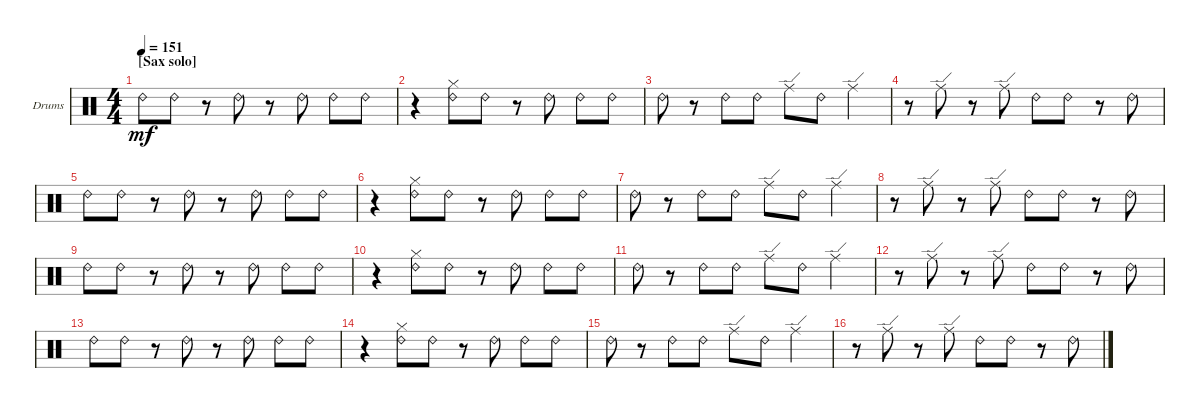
\bracketExtendMode groupsimilarinstruments
\firstSystemTrackNameOrientation horizontal
\otherSystemsTrackNameOrientation horizontal
\track ("Drumkit" "Drums") {instrument percussion}
\staff {score}
\articulation defaults
\ts (4 4)
\section ("" "[Sax solo]")
\tempo 151
\clef neutral
\ks aminor "Ride (bell) 2".8{dy mf} "Ride (bell) 2".8
r.8 "Ride (bell) 2".8 r.8 "Ride (bell) 2".8 "Ride (bell) 2".8 "Ride (bell) 2".8 |
r.4 ("Ride (bell) 2" "Hi-Hat (closed)").8 "Ride (bell) 2".8 r.8 "Ride (bell) 2".8 "Ride (bell) 2".8 "Ride (bell) 2".8 |
"Ride (bell) 2".8 r.8 "Ride (bell) 2".8 "Ride (bell) 2".8 "Ride (edge)".8 "Ride (bell) 2".8 "Ride (edge)".4 |
r.8 "Ride (edge)".8 r.8 "Ride (edge)".8 "Ride (bell) 2".8 "Ride (bell) 2".8 r.8 "Ride (bell) 2".8 |
"Ride (bell) 2".8 "Ride (bell) 2".8 r.8 "Ride (bell) 2".8 r.8 "Ride (bell) 2".8 "Ride (bell) 2".8 "Ride (bell) 2".8 |
r.4 ("Ride (bell) 2" "Hi-Hat (closed)").8 "Ride (bell) 2".8 r.8 "Ride (bell) 2".8 "Ride (bell) 2".8 "Ride (bell) 2".8 |
"Ride (bell) 2".8 r.8 "Ride (bell) 2".8 "Ride (bell) 2".8 "Ride (edge)".8 "Ride (bell) 2".8 "Ride (edge)".4 |
r.8 "Ride (edge)".8 r.8 "Ride (edge)".8 "Ride (bell) 2".8 "Ride (bell) 2".8 r.8 "Ride (bell) 2".8 |
"Ride (bell) 2".8 "Ride (bell) 2".8 r.8 "Ride (bell) 2".8 r.8 "Ride (bell) 2".8 "Ride (bell) 2".8 "Ride (bell) 2".8 |
r.4 ("Ride (bell) 2" "Hi-Hat (closed)").8 "Ride (bell) 2".8 r.8 "Ride (bell) 2".8 "Ride (bell) 2".8 "Ride (bell) 2".8 |
"Ride (bell) 2".8 r.8 "Ride (bell) 2".8 "Ride (bell) 2".8 "Ride (edge)".8 "Ride (bell) 2".8 "Ride (edge)".4 |
r.8 "Ride (edge)".8 r.8 "Ride (edge)".8 "Ride (bell) 2".8 "Ride (bell) 2".8 r.8 "Ride (bell) 2".8 |
"Ride (bell) 2".8 "Ride (bell) 2".8 r.8 "Ride (bell) 2".8 r.8 "Ride (bell) 2".8 "Ride (bell) 2".8 "Ride (bell) 2".8 |
r.4 ("Ride (bell) 2" "Hi-Hat (closed)").8 "Ride (bell) 2".8 r.8 "Ride (bell) 2".8 "Ride (bell) 2".8 "Ride (bell) 2".8 |
"Ride (bell) 2".8 r.8 "Ride (bell) 2".8 "Ride (bell) 2".8 "Ride (edge)".8 "Ride (bell) 2".8 "Ride (edge)".4 |
r.8 "Ride (edge)".8 r.8 "Ride (edge)".8 "Ride (bell) 2".8 "Ride (bell) 2".8 r.8 "Ride (bell) 2".8
